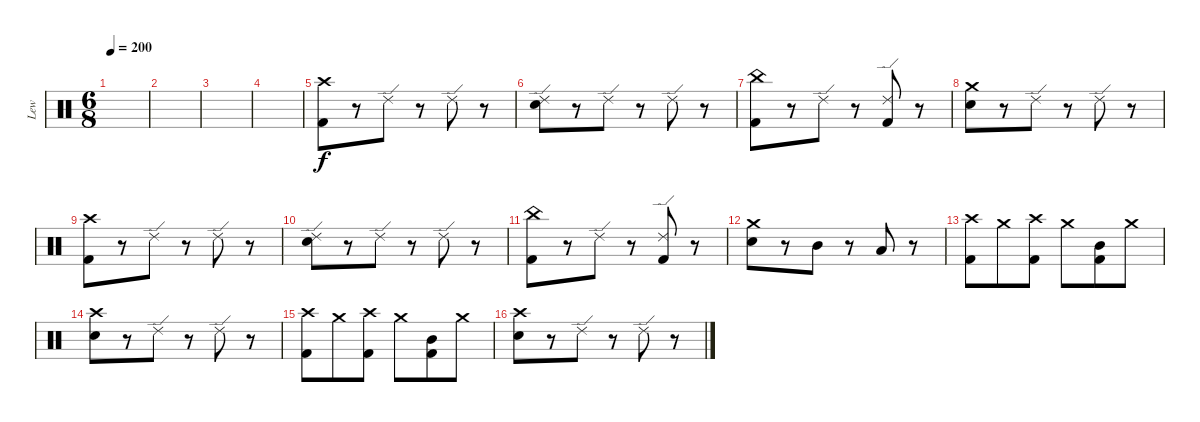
\track ("Lew" "Lew") {instrument percussion}
\staff {score}
\articulation defaults
\ts (6 8)
\tempo 200
\clef neutral
\ks c
|
|
|
|
("Crash high (hit)" "Kick (hit) 2").8 r.8 "Ride (edge) 2".8 r.8 "Ride (edge) 2".8 r.8 |
("Ride (edge) 2" "Electric Snare (hit)").8 r.8 "Ride (edge) 2".8 r.8 "Ride (edge) 2".8 r.8 |
("China (hit)" "Kick (hit) 2").8 r.8 "Ride (edge) 2".8 r.8 ("Ride (edge) 2" "Kick (hit) 2").8 r.8 |
("Crash medium (hit)" "Electric Snare (hit)").8 r.8 "Ride (edge) 2".8 r.8 "Ride (edge) 2".8 r.8 |
("Crash high (hit)" "Kick (hit) 2").8 r.8 "Ride (edge) 2".8 r.8 "Ride (edge) 2".8 r.8 |
("Ride (edge) 2" "Electric Snare (hit)").8 r.8 "Ride (edge) 2".8 r.8 "Ride (edge) 2".8 r.8 |
("China (hit)" "Kick (hit) 2").8 r.8 "Ride (edge) 2".8 r.8 ("Ride (edge) 2" "Kick (hit) 2").8 r.8 |
("Crash medium (hit)" "Electric Snare (hit)").8 r.8 "Mid Tom (hit)".8 r.8 "Low Tom (hit)".8 r.8 |
("Crash high (hit)" "Kick (hit) 2").8 "Crash medium (hit)".8 ("Crash high (hit)" "Kick (hit) 2").8 "Crash medium (hit)".8 ("Mid Tom (hit)" "Kick (hit) 2").8 "Crash medium (hit)".8 |
("Crash high (hit)" "Electric Snare (hit)").8 r.8 "Ride (edge) 2".8 r.8 "Ride (edge) 2".8 r.8 |
("Crash high (hit)" "Kick (hit) 2").8 "Crash medium (hit)".8 ("Crash high (hit)" "Kick (hit) 2").8 "Crash medium (hit)".8 ("Mid Tom (hit)" "Kick (hit) 2").8 "Crash medium (hit)".8 |
("Crash high (hit)" "Electric Snare (hit)").8 r.8 "Ride (edge) 2".8 r.8 "Ride (edge) 2".8 r.8
